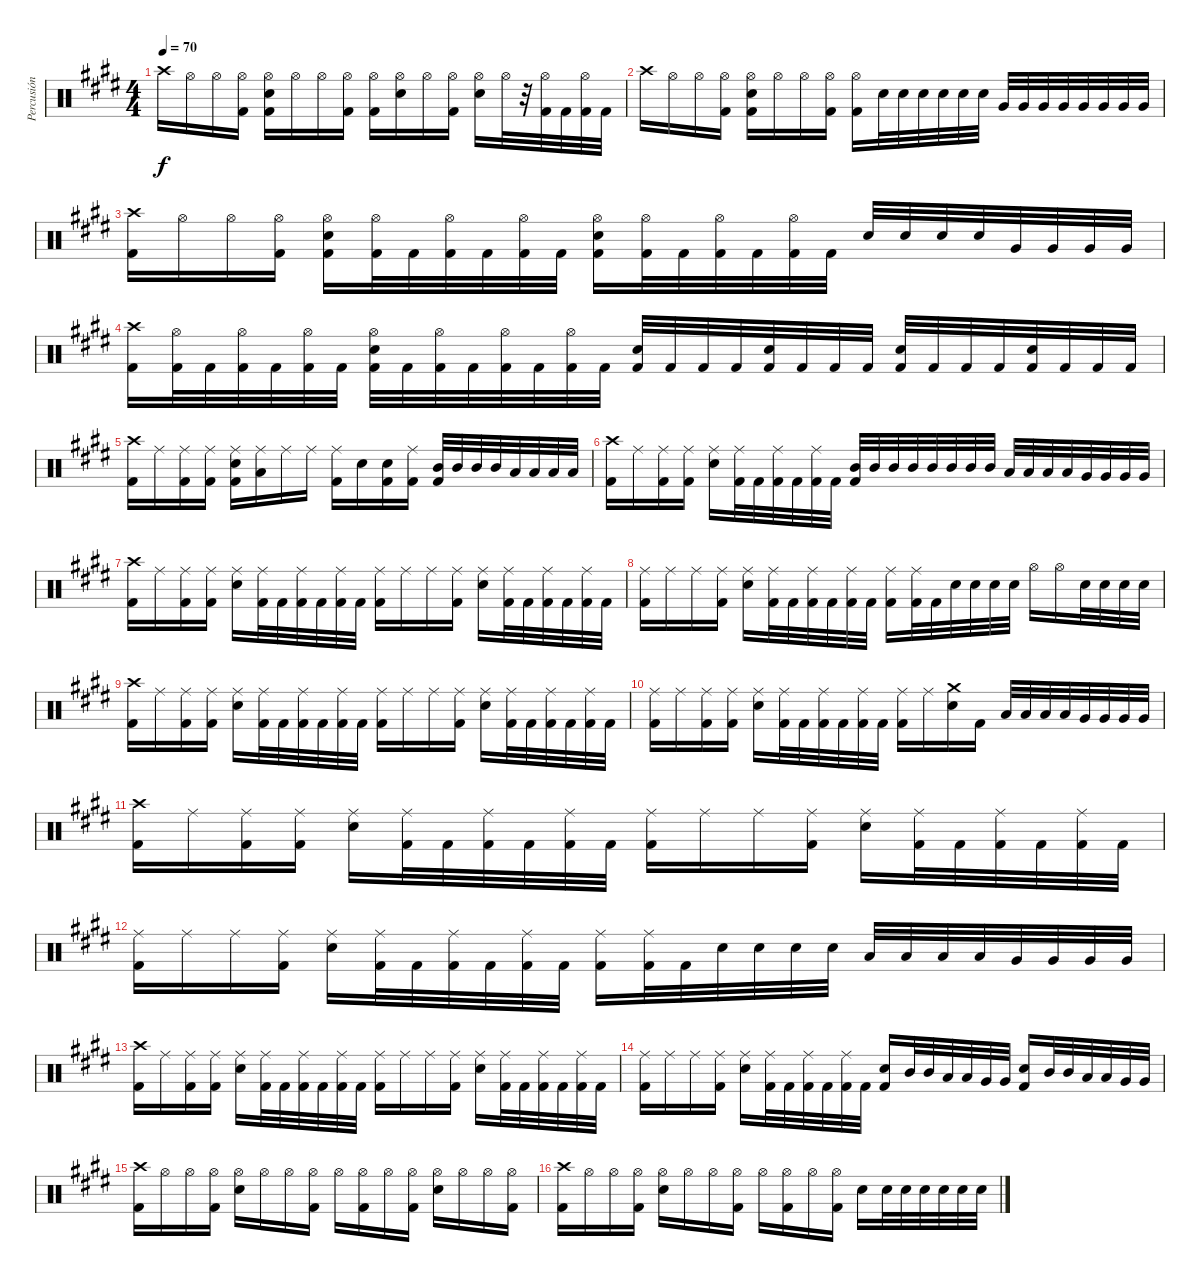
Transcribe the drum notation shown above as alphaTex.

\track ("Percusión" "Percusión") {instrument percussion}
\staff {score}
\articulation defaults
\ts (4 4)
\tempo 70
\clef neutral
\ks e "Crash high (hit)".16{dy f} "Hi-Hat (open)".16 "Hi-Hat (open)".16
("Hi-Hat (open)" "Kick (hit) 2").16 ("Hi-Hat (open)" "Snare (hit) 2" "Kick (hit) 2").16 "Hi-Hat (open)".16 "Hi-Hat (open)".16 ("Hi-Hat (open)" "Kick (hit) 2").16 ("Hi-Hat (open)" "Kick (hit) 2").16 ("Hi-Hat (open)" "Snare (hit) 2").16 "Hi-Hat (open)".16 ("Hi-Hat (open)" "Kick (hit) 2").16 ("Hi-Hat (open)" "Snare (hit) 2").16 "Hi-Hat (open)".32 r.32 ("Hi-Hat (open)" "Kick (hit) 2").32 "Kick (hit) 2".32 ("Hi-Hat (open)" "Kick (hit) 2").32 "Kick (hit) 2".32 |
"Crash high (hit)".16 "Hi-Hat (open)".16 "Hi-Hat (open)".16 ("Hi-Hat (open)" "Kick (hit) 2").16 ("Hi-Hat (open)" "Snare (hit) 2" "Kick (hit) 2").16 "Hi-Hat (open)".16 "Hi-Hat (open)".16 ("Hi-Hat (open)" "Kick (hit) 2").16 ("Hi-Hat (open)" "Kick (hit) 2").16 "Snare (hit) 2".32 "Snare (hit) 2".32 "Snare (hit) 2".32 "Snare (hit) 2".32 "Snare (hit) 2".32 "Snare (hit) 2".32 "Very Low Tom (hit)".32 "Very Low Tom (hit)".32 "Very Low Tom (hit)".32 "Very Low Tom (hit)".32 "Very Low Tom (hit)".32 "Very Low Tom (hit)".32 "Very Low Tom (hit)".32 "Very Low Tom (hit)".32 |
("Crash high (hit)" "Kick (hit) 2").16 "Hi-Hat (open)".16 "Hi-Hat (open)".16 ("Hi-Hat (open)" "Kick (hit) 2").16 ("Hi-Hat (open)" "Snare (hit) 2" "Kick (hit) 2").16 ("Hi-Hat (open)" "Kick (hit) 2").32 "Kick (hit) 2".32 ("Hi-Hat (open)" "Kick (hit) 2").32 "Kick (hit) 2".32 ("Hi-Hat (open)" "Kick (hit) 2").32 "Kick (hit) 2".32 ("Hi-Hat (open)" "Snare (hit) 2" "Kick (hit) 2").16 ("Hi-Hat (open)" "Kick (hit) 2").32 "Kick (hit) 2".32 ("Hi-Hat (open)" "Kick (hit) 2").32 "Kick (hit) 2".32 ("Hi-Hat (open)" "Kick (hit) 2").32 "Kick (hit) 2".32 "Snare (hit) 2".32 "Snare (hit) 2".32 "Snare (hit) 2".32 "Snare (hit) 2".32 "Very Low Tom (hit)".32 "Very Low Tom (hit)".32 "Very Low Tom (hit)".32 "Very Low Tom (hit)".32 |
("Crash high (hit)" "Kick (hit) 2").16 ("Hi-Hat (open)" "Kick (hit) 2").32 "Kick (hit) 2".32 ("Hi-Hat (open)" "Kick (hit) 2").32 "Kick (hit) 2".32 ("Hi-Hat (open)" "Kick (hit) 2").32 "Kick (hit) 2".32 ("Hi-Hat (open)" "Snare (hit) 2" "Kick (hit) 2").32 "Kick (hit) 2".32 ("Hi-Hat (open)" "Kick (hit) 2").32 "Kick (hit) 2".32 ("Hi-Hat (open)" "Kick (hit) 2").32 "Kick (hit) 2".32 ("Hi-Hat (open)" "Kick (hit) 2").32 "Kick (hit) 2".32 ("Snare (hit) 2" "Kick (hit) 2").32 "Kick (hit) 2".32 "Kick (hit) 2".32 "Kick (hit) 2".32 ("Snare (hit) 2" "Kick (hit) 2").32 "Kick (hit) 2".32 "Kick (hit) 2".32 "Kick (hit) 2".32 ("Snare (hit) 2" "Kick (hit) 2").32 "Kick (hit) 2".32 "Kick (hit) 2".32 "Kick (hit) 2".32 ("Snare (hit) 2" "Kick (hit) 2").32 "Kick (hit) 2".32 "Kick (hit) 2".32 "Kick (hit) 2".32 |
("Crash high (hit)" "Kick (hit) 2").16 "Ride (middle)".16 ("Ride (middle)" "Kick (hit) 2").16 ("Ride (middle)" "Kick (hit) 2").16 ("Ride (middle)" "Snare (hit) 2" "Kick (hit) 2").16 ("Ride (middle)" "Low Tom (hit)").16 "Ride (middle)".16 "Ride (middle)".16 ("Ride (middle)" "Kick (hit) 2").16 "Snare (hit) 2".16 ("Snare (hit) 2" "Kick (hit) 2").16 ("Ride (middle)" "Kick (hit) 2").16 ("Mid Tom (hit)" "Kick (hit) 2").32 "Mid Tom (hit)".32 "Mid Tom (hit)".32 "Mid Tom (hit)".32 "Low Tom (hit)".32 "Low Tom (hit)".32 "Low Tom (hit)".32 "Low Tom (hit)".32 |
("Crash high (hit)" "Kick (hit) 2").16 "Ride (middle)".16 ("Ride (middle)" "Kick (hit) 2").16 ("Ride (middle)" "Kick (hit) 2").16 ("Ride (middle)" "Snare (hit) 2").16 ("Ride (middle)" "Kick (hit) 2").32 "Kick (hit) 2".32 ("Ride (middle)" "Kick (hit) 2").32 "Kick (hit) 2".32 ("Ride (middle)" "Kick (hit) 2").32 "Kick (hit) 2".32 ("Mid Tom (hit)" "Kick (hit) 2").32 "Mid Tom (hit)".32 "Mid Tom (hit)".32 "Mid Tom (hit)".32 "Mid Tom (hit)".32 "Mid Tom (hit)".32 "Mid Tom (hit)".32 "Mid Tom (hit)".32 "Low Tom (hit)".32 "Low Tom (hit)".32 "Low Tom (hit)".32 "Low Tom (hit)".32 "Very Low Tom (hit)".32 "Very Low Tom (hit)".32 "Very Low Tom (hit)".32 "Very Low Tom (hit)".32 |
("Crash high (hit)" "Kick (hit) 2").16 "Ride (middle)".16 ("Ride (middle)" "Kick (hit) 2").16 ("Ride (middle)" "Kick (hit) 2").16 ("Ride (middle)" "Snare (hit) 2").16 ("Ride (middle)" "Kick (hit) 2").32 "Kick (hit) 2".32 ("Ride (middle)" "Kick (hit) 2").32 "Kick (hit) 2".32 ("Ride (middle)" "Kick (hit) 2").32 "Kick (hit) 2".32 ("Ride (middle)" "Kick (hit) 2").16 "Ride (middle)".16 "Ride (middle)".16 ("Ride (middle)" "Kick (hit) 2").16 ("Ride (middle)" "Snare (hit) 2").16 ("Ride (middle)" "Kick (hit) 2").32 "Kick (hit) 2".32 ("Ride (middle)" "Kick (hit) 2").32 "Kick (hit) 2".32 ("Ride (middle)" "Kick (hit) 2").32 "Kick (hit) 2".32 |
("Ride (middle)" "Kick (hit) 2").16 "Ride (middle)".16 "Ride (middle)".16 ("Ride (middle)" "Kick (hit) 2").16 ("Ride (middle)" "Snare (hit) 2").16 ("Ride (middle)" "Kick (hit) 2").32 "Kick (hit) 2".32 ("Ride (middle)" "Kick (hit) 2").32 "Kick (hit) 2".32 ("Ride (middle)" "Kick (hit) 2").32 "Kick (hit) 2".32 ("Ride (middle)" "Kick (hit) 2").16 ("Ride (middle)" "Kick (hit) 2").32 "Kick (hit) 2".32 "Snare (hit) 2".32 "Snare (hit) 2".32 "Snare (hit) 2".32 "Snare (hit) 2".32 "Hi-Hat (open)".16 "Hi-Hat (open)".16 "Snare (hit) 2".32 "Snare (hit) 2".32 "Snare (hit) 2".32 "Snare (hit) 2".32 |
("Crash high (hit)" "Kick (hit) 2").16 "Ride (middle)".16 ("Ride (middle)" "Kick (hit) 2").16 ("Ride (middle)" "Kick (hit) 2").16 ("Ride (middle)" "Snare (hit) 2").16 ("Ride (middle)" "Kick (hit) 2").32 "Kick (hit) 2".32 ("Ride (middle)" "Kick (hit) 2").32 "Kick (hit) 2".32 ("Ride (middle)" "Kick (hit) 2").32 "Kick (hit) 2".32 ("Ride (middle)" "Kick (hit) 2").16 "Ride (middle)".16 "Ride (middle)".16 ("Ride (middle)" "Kick (hit) 2").16 ("Ride (middle)" "Snare (hit) 2").16 ("Ride (middle)" "Kick (hit) 2").32 "Kick (hit) 2".32 ("Ride (middle)" "Kick (hit) 2").32 "Kick (hit) 2".32 ("Ride (middle)" "Kick (hit) 2").32 "Kick (hit) 2".32 |
("Ride (middle)" "Kick (hit) 2").16 "Ride (middle)".16 ("Ride (middle)" "Kick (hit) 2").16 ("Ride (middle)" "Kick (hit) 2").16 ("Ride (middle)" "Snare (hit) 2").16 ("Ride (middle)" "Kick (hit) 2").32 "Kick (hit) 2".32 ("Ride (middle)" "Kick (hit) 2").32 "Kick (hit) 2".32 ("Ride (middle)" "Kick (hit) 2").32 "Kick (hit) 2".32 ("Ride (middle)" "Kick (hit) 2").16 "Ride (middle)".16 ("Crash medium (hit)" "Electric Snare (hit)").16 "Kick (hit) 2".16 "Low Tom (hit)".32 "Low Tom (hit)".32 "Low Tom (hit)".32 "Low Tom (hit)".32 "Very Low Tom (hit)".32 "Very Low Tom (hit)".32 "Very Low Tom (hit)".32 "Very Low Tom (hit)".32 |
("Crash high (hit)" "Kick (hit) 2").16 "Ride (middle)".16 ("Ride (middle)" "Kick (hit) 2").16 ("Ride (middle)" "Kick (hit) 2").16 ("Ride (middle)" "Snare (hit) 2").16 ("Ride (middle)" "Kick (hit) 2").32 "Kick (hit) 2".32 ("Ride (middle)" "Kick (hit) 2").32 "Kick (hit) 2".32 ("Ride (middle)" "Kick (hit) 2").32 "Kick (hit) 2".32 ("Ride (middle)" "Kick (hit) 2").16 "Ride (middle)".16 "Ride (middle)".16 ("Ride (middle)" "Kick (hit) 2").16 ("Ride (middle)" "Snare (hit) 2").16 ("Ride (middle)" "Kick (hit) 2").32 "Kick (hit) 2".32 ("Ride (middle)" "Kick (hit) 2").32 "Kick (hit) 2".32 ("Ride (middle)" "Kick (hit) 2").32 "Kick (hit) 2".32 |
("Ride (middle)" "Kick (hit) 2").16 "Ride (middle)".16 "Ride (middle)".16 ("Ride (middle)" "Kick (hit) 2").16 ("Ride (middle)" "Snare (hit) 2").16 ("Ride (middle)" "Kick (hit) 2").32 "Kick (hit) 2".32 ("Ride (middle)" "Kick (hit) 2").32 "Kick (hit) 2".32 ("Ride (middle)" "Kick (hit) 2").32 "Kick (hit) 2".32 ("Ride (middle)" "Kick (hit) 2").16 ("Ride (middle)" "Kick (hit) 2").32 "Kick (hit) 2".32 "Snare (hit) 2".32 "Snare (hit) 2".32 "Snare (hit) 2".32 "Snare (hit) 2".32 "Low Tom (hit)".32 "Low Tom (hit)".32 "Low Tom (hit)".32 "Low Tom (hit)".32 "Very Low Tom (hit)".32 "Very Low Tom (hit)".32 "Very Low Tom (hit)".32 "Very Low Tom (hit)".32 |
("Crash high (hit)" "Kick (hit) 2").16 "Ride (middle)".16 ("Ride (middle)" "Kick (hit) 2").16 ("Ride (middle)" "Kick (hit) 2").16 ("Ride (middle)" "Snare (hit) 2").16 ("Ride (middle)" "Kick (hit) 2").32 "Kick (hit) 2".32 ("Ride (middle)" "Kick (hit) 2").32 "Kick (hit) 2".32 ("Ride (middle)" "Kick (hit) 2").32 "Kick (hit) 2".32 ("Ride (middle)" "Kick (hit) 2").16 "Ride (middle)".16 "Ride (middle)".16 ("Ride (middle)" "Kick (hit) 2").16 ("Ride (middle)" "Snare (hit) 2").16 ("Ride (middle)" "Kick (hit) 2").32 "Kick (hit) 2".32 ("Ride (middle)" "Kick (hit) 2").32 "Kick (hit) 2".32 ("Ride (middle)" "Kick (hit) 2").32 "Kick (hit) 2".32 |
("Ride (middle)" "Kick (hit) 2").16 "Ride (middle)".16 "Ride (middle)".16 ("Ride (middle)" "Kick (hit) 2").16 ("Ride (middle)" "Snare (hit) 2").16 ("Ride (middle)" "Kick (hit) 2").32 "Kick (hit) 2".32 ("Ride (middle)" "Kick (hit) 2").32 "Kick (hit) 2".32 ("Ride (middle)" "Kick (hit) 2").32 "Kick (hit) 2".32 ("Snare (hit) 2" "Kick (hit) 2").16 "Mid Tom (hit)".32 "Mid Tom (hit)".32 "Low Tom (hit)".32 "Low Tom (hit)".32 "Very Low Tom (hit)".32 "Very Low Tom (hit)".32 ("Snare (hit) 2" "Kick (hit) 2").16 "Mid Tom (hit)".32 "Mid Tom (hit)".32 "Low Tom (hit)".32 "Low Tom (hit)".32 "Very Low Tom (hit)".32 "Very Low Tom (hit)".32 |
("Crash high (hit)" "Kick (hit) 2").16 "Hi-Hat (open)".16 "Hi-Hat (open)".16 ("Hi-Hat (open)" "Kick (hit) 2").16 ("Hi-Hat (open)" "Snare (hit) 2").16 "Hi-Hat (open)".16 "Hi-Hat (open)".16 ("Hi-Hat (open)" "Kick (hit) 2").16 "Hi-Hat (open)".16 ("Hi-Hat (open)" "Kick (hit) 2").16 "Hi-Hat (open)".16 ("Hi-Hat (open)" "Kick (hit) 2").16 ("Hi-Hat (open)" "Snare (hit) 2").16 "Hi-Hat (open)".16 "Hi-Hat (open)".16 ("Hi-Hat (open)" "Kick (hit) 2").16 |
("Crash high (hit)" "Kick (hit) 2").16 "Hi-Hat (open)".16 "Hi-Hat (open)".16 ("Hi-Hat (open)" "Kick (hit) 2").16 ("Hi-Hat (open)" "Snare (hit) 2").16 "Hi-Hat (open)".16 "Hi-Hat (open)".16 ("Hi-Hat (open)" "Kick (hit) 2").16 "Hi-Hat (open)".16 ("Hi-Hat (open)" "Kick (hit) 2").16 "Hi-Hat (open)".16 ("Hi-Hat (open)" "Kick (hit) 2").16 "Snare (hit) 2".16 "Snare (hit) 2".32 "Snare (hit) 2".32 "Snare (hit) 2".32 "Snare (hit) 2".32 "Snare (hit) 2".32 "Snare (hit) 2".32
